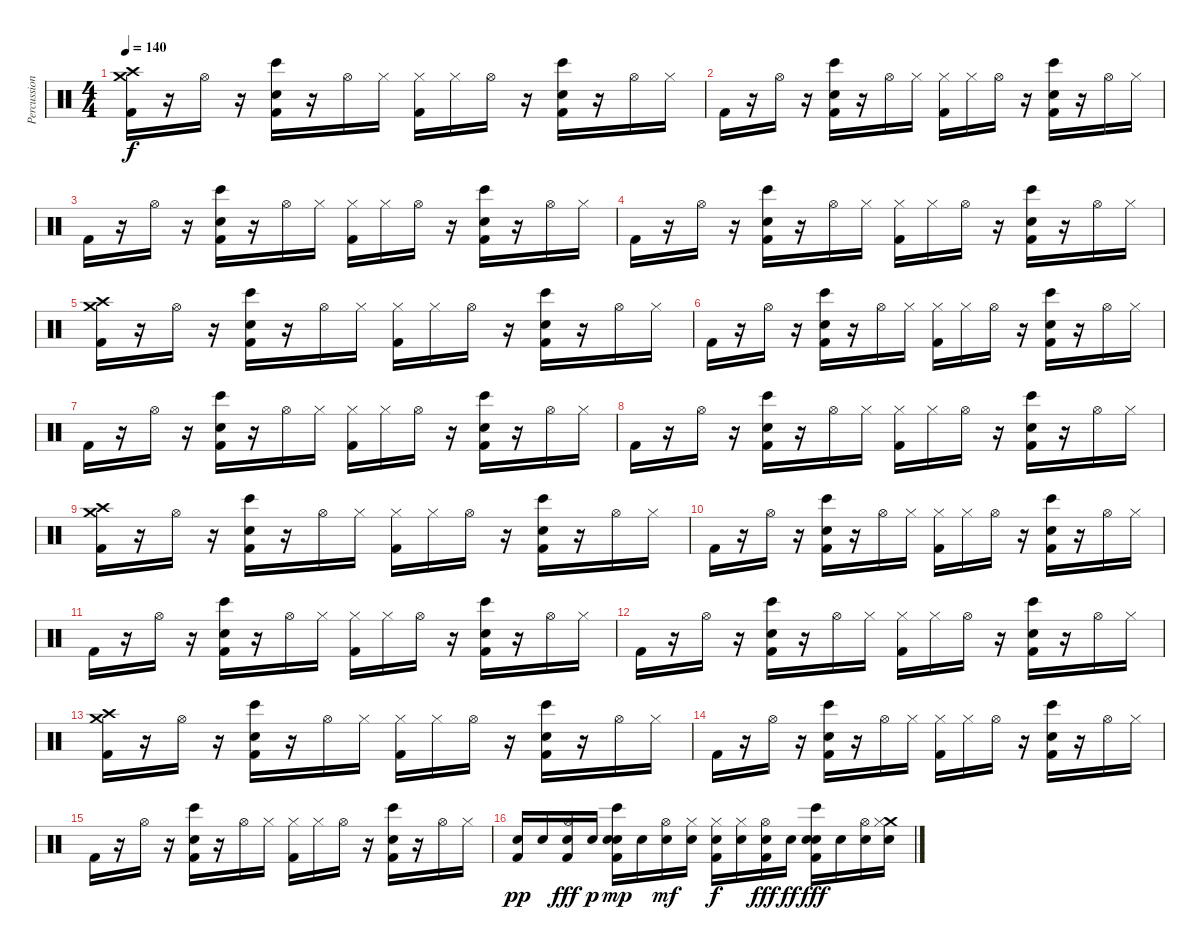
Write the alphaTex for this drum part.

\track ("Percussion" "Percussion") {instrument percussion}
\staff {score}
\articulation defaults
\ts (4 4)
\tempo 140
\clef neutral
\ks c
("Crash high (hit)" "Crash medium (hit)" "Kick (hit) 2").16{dy f} r.16 "Hi-Hat (open)".16 r.16 ("Hand Clap (hit)" "Bongo High (hit)" "Kick (hit) 2").16 r.16 "Hi-Hat (open)".16 "Hi-Hat (closed)".16 ("Hi-Hat (closed)" "Kick (hit) 2").16 "Hi-Hat (closed)".16 "Hi-Hat (open)".16 r.16 ("Hand Clap (hit)" "Bongo High (hit)" "Kick (hit) 2").16 r.16 "Hi-Hat (open)".16 "Hi-Hat (closed)".16 |
"Kick (hit) 2".16 r.16 "Hi-Hat (open)".16 r.16 ("Hand Clap (hit)" "Bongo High (hit)" "Kick (hit) 2").16 r.16 "Hi-Hat (open)".16 "Hi-Hat (closed)".16 ("Hi-Hat (closed)" "Kick (hit) 2").16 "Hi-Hat (closed)".16 "Hi-Hat (open)".16 r.16 ("Hand Clap (hit)" "Bongo High (hit)" "Kick (hit) 2").16 r.16 "Hi-Hat (open)".16 "Hi-Hat (closed)".16 |
"Kick (hit) 2".16 r.16 "Hi-Hat (open)".16 r.16 ("Hand Clap (hit)" "Bongo High (hit)" "Kick (hit) 2").16 r.16 "Hi-Hat (open)".16 "Hi-Hat (closed)".16 ("Hi-Hat (closed)" "Kick (hit) 2").16 "Hi-Hat (closed)".16 "Hi-Hat (open)".16 r.16 ("Hand Clap (hit)" "Bongo High (hit)" "Kick (hit) 2").16 r.16 "Hi-Hat (open)".16 "Hi-Hat (closed)".16 |
"Kick (hit) 2".16 r.16 "Hi-Hat (open)".16 r.16 ("Hand Clap (hit)" "Bongo High (hit)" "Kick (hit) 2").16 r.16 "Hi-Hat (open)".16 "Hi-Hat (closed)".16 ("Hi-Hat (closed)" "Kick (hit) 2").16 "Hi-Hat (closed)".16 "Hi-Hat (open)".16 r.16 ("Hand Clap (hit)" "Bongo High (hit)" "Kick (hit) 2").16 r.16 "Hi-Hat (open)".16 "Hi-Hat (closed)".16 |
("Crash high (hit)" "Crash medium (hit)" "Kick (hit) 2").16 r.16 "Hi-Hat (open)".16 r.16 ("Hand Clap (hit)" "Bongo High (hit)" "Kick (hit) 2").16 r.16 "Hi-Hat (open)".16 "Hi-Hat (closed)".16 ("Hi-Hat (closed)" "Kick (hit) 2").16 "Hi-Hat (closed)".16 "Hi-Hat (open)".16 r.16 ("Hand Clap (hit)" "Bongo High (hit)" "Kick (hit) 2").16 r.16 "Hi-Hat (open)".16 "Hi-Hat (closed)".16 |
"Kick (hit) 2".16 r.16 "Hi-Hat (open)".16 r.16 ("Hand Clap (hit)" "Bongo High (hit)" "Kick (hit) 2").16 r.16 "Hi-Hat (open)".16 "Hi-Hat (closed)".16 ("Hi-Hat (closed)" "Kick (hit) 2").16 "Hi-Hat (closed)".16 "Hi-Hat (open)".16 r.16 ("Hand Clap (hit)" "Bongo High (hit)" "Kick (hit) 2").16 r.16 "Hi-Hat (open)".16 "Hi-Hat (closed)".16 |
"Kick (hit) 2".16 r.16 "Hi-Hat (open)".16 r.16 ("Hand Clap (hit)" "Bongo High (hit)" "Kick (hit) 2").16 r.16 "Hi-Hat (open)".16 "Hi-Hat (closed)".16 ("Hi-Hat (closed)" "Kick (hit) 2").16 "Hi-Hat (closed)".16 "Hi-Hat (open)".16 r.16 ("Hand Clap (hit)" "Bongo High (hit)" "Kick (hit) 2").16 r.16 "Hi-Hat (open)".16 "Hi-Hat (closed)".16 |
"Kick (hit) 2".16 r.16 "Hi-Hat (open)".16 r.16 ("Hand Clap (hit)" "Bongo High (hit)" "Kick (hit) 2").16 r.16 "Hi-Hat (open)".16 "Hi-Hat (closed)".16 ("Hi-Hat (closed)" "Kick (hit) 2").16 "Hi-Hat (closed)".16 "Hi-Hat (open)".16 r.16 ("Hand Clap (hit)" "Bongo High (hit)" "Kick (hit) 2").16 r.16 "Hi-Hat (open)".16 "Hi-Hat (closed)".16 |
("Crash high (hit)" "Crash medium (hit)" "Kick (hit) 2").16 r.16 "Hi-Hat (open)".16 r.16 ("Hand Clap (hit)" "Bongo High (hit)" "Kick (hit) 2").16 r.16 "Hi-Hat (open)".16 "Hi-Hat (closed)".16 ("Hi-Hat (closed)" "Kick (hit) 2").16 "Hi-Hat (closed)".16 "Hi-Hat (open)".16 r.16 ("Hand Clap (hit)" "Bongo High (hit)" "Kick (hit) 2").16 r.16 "Hi-Hat (open)".16 "Hi-Hat (closed)".16 |
"Kick (hit) 2".16 r.16 "Hi-Hat (open)".16 r.16 ("Hand Clap (hit)" "Bongo High (hit)" "Kick (hit) 2").16 r.16 "Hi-Hat (open)".16 "Hi-Hat (closed)".16 ("Hi-Hat (closed)" "Kick (hit) 2").16 "Hi-Hat (closed)".16 "Hi-Hat (open)".16 r.16 ("Hand Clap (hit)" "Bongo High (hit)" "Kick (hit) 2").16 r.16 "Hi-Hat (open)".16 "Hi-Hat (closed)".16 |
"Kick (hit) 2".16 r.16 "Hi-Hat (open)".16 r.16 ("Hand Clap (hit)" "Bongo High (hit)" "Kick (hit) 2").16 r.16 "Hi-Hat (open)".16 "Hi-Hat (closed)".16 ("Hi-Hat (closed)" "Kick (hit) 2").16 "Hi-Hat (closed)".16 "Hi-Hat (open)".16 r.16 ("Hand Clap (hit)" "Bongo High (hit)" "Kick (hit) 2").16 r.16 "Hi-Hat (open)".16 "Hi-Hat (closed)".16 |
"Kick (hit) 2".16 r.16 "Hi-Hat (open)".16 r.16 ("Hand Clap (hit)" "Bongo High (hit)" "Kick (hit) 2").16 r.16 "Hi-Hat (open)".16 "Hi-Hat (closed)".16 ("Hi-Hat (closed)" "Kick (hit) 2").16 "Hi-Hat (closed)".16 "Hi-Hat (open)".16 r.16 ("Hand Clap (hit)" "Bongo High (hit)" "Kick (hit) 2").16 r.16 "Hi-Hat (open)".16 "Hi-Hat (closed)".16 |
("Crash high (hit)" "Crash medium (hit)" "Kick (hit) 2").16 r.16 "Hi-Hat (open)".16 r.16 ("Hand Clap (hit)" "Bongo High (hit)" "Kick (hit) 2").16 r.16 "Hi-Hat (open)".16 "Hi-Hat (closed)".16 ("Hi-Hat (closed)" "Kick (hit) 2").16 "Hi-Hat (closed)".16 "Hi-Hat (open)".16 r.16 ("Hand Clap (hit)" "Bongo High (hit)" "Kick (hit) 2").16 r.16 "Hi-Hat (open)".16 "Hi-Hat (closed)".16 |
"Kick (hit) 2".16 r.16 "Hi-Hat (open)".16 r.16 ("Hand Clap (hit)" "Bongo High (hit)" "Kick (hit) 2").16 r.16 "Hi-Hat (open)".16 "Hi-Hat (closed)".16 ("Hi-Hat (closed)" "Kick (hit) 2").16 "Hi-Hat (closed)".16 "Hi-Hat (open)".16 r.16 ("Hand Clap (hit)" "Bongo High (hit)" "Kick (hit) 2").16 r.16 "Hi-Hat (open)".16 "Hi-Hat (closed)".16 |
"Kick (hit) 2".16 r.16 "Hi-Hat (open)".16 r.16 ("Hand Clap (hit)" "Bongo High (hit)" "Kick (hit) 2").16 r.16 "Hi-Hat (open)".16 "Hi-Hat (closed)".16 ("Hi-Hat (closed)" "Kick (hit) 2").16 "Hi-Hat (closed)".16 "Hi-Hat (open)".16 r.16 ("Hand Clap (hit)" "Bongo High (hit)" "Kick (hit) 2").16 r.16 "Hi-Hat (open)".16 "Hi-Hat (closed)".16 |
("Snare (hit) 2" "Kick (hit) 2").16{dy pp} "Snare (hit) 2".16 ("Hi-Hat (open)" "Snare (hit) 2" "Kick (hit) 2").16{dy fff} "Snare (hit) 2".16{dy p} ("Hand Clap (hit)" "Bongo High (hit)" "Snare (hit) 2" "Kick (hit) 2").16{dy mp} "Snare (hit) 2".16 ("Hi-Hat (open)" "Snare (hit) 2").16{dy mf} ("Hi-Hat (closed)" "Snare (hit) 2").16 ("Hi-Hat (closed)" "Snare (hit) 2" "Kick (hit) 2").16{dy f} ("Hi-Hat (closed)" "Snare (hit) 2").16 ("Hi-Hat (open)" "Snare (hit) 2" "Kick (hit) 2").16{dy fff} "Snare (hit) 2".16{dy ff} ("Hand Clap (hit)" "Bongo High (hit)" "Snare (hit) 2" "Kick (hit) 2").16{dy fff} "Snare (hit) 2".16 ("Hi-Hat (open)" "Snare (hit) 2").16 ("Crash medium (hit)" "Hi-Hat (closed)" "Snare (hit) 2").16
